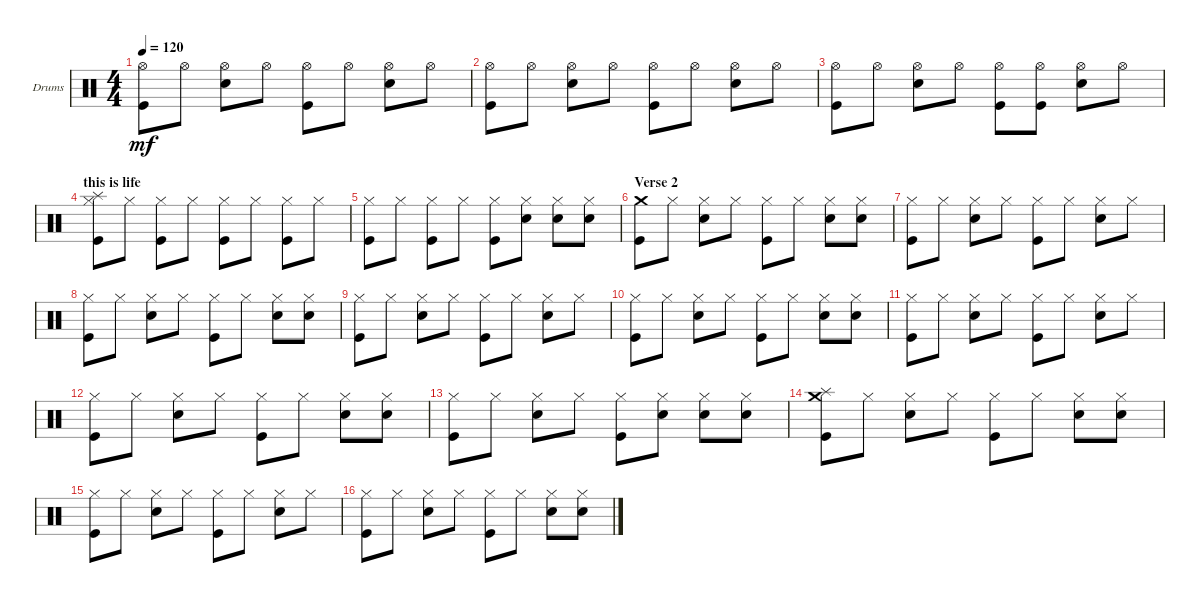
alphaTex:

\defaultSystemsLayout 4
\bracketExtendMode groupsimilarinstruments
\firstSystemTrackNameOrientation horizontal
\otherSystemsTrackNameOrientation horizontal
\track ("Drumkit" "Drums") {instrument percussion}
\staff {score}
\articulation defaults
\ts (4 4)
\tempo 120
\clef neutral
\ks c
("Kick (hit)" "Hi-Hat (open)").8{dy mf} "Hi-Hat (open)".8 ("Hi-Hat (open)" "Snare (hit) 2").8 "Hi-Hat (open)".8 ("Hi-Hat (open)" "Kick (hit)").8 "Hi-Hat (open)".8 ("Hi-Hat (open)" "Snare (hit) 2").8 "Hi-Hat (open)".8 |
("Kick (hit)" "Hi-Hat (open)").8 "Hi-Hat (open)".8 ("Hi-Hat (open)" "Snare (hit) 2").8 "Hi-Hat (open)".8 ("Hi-Hat (open)" "Kick (hit)").8 "Hi-Hat (open)".8 ("Hi-Hat (open)" "Snare (hit) 2").8 "Hi-Hat (open)".8 |
("Kick (hit)" "Hi-Hat (open)").8 "Hi-Hat (open)".8 ("Hi-Hat (open)" "Snare (hit) 2").8 "Hi-Hat (open)".8 ("Hi-Hat (open)" "Kick (hit)").8 ("Hi-Hat (open)" "Kick (hit)").8 ("Hi-Hat (open)" "Snare (hit) 2").8 "Hi-Hat (open)".8 |
\section ("" "this is life")
("Kick (hit)" "Hi-Hat (closed)" "Splash (hit)").8 "Hi-Hat (closed)".8 ("Hi-Hat (closed)" "Kick (hit)").8 "Hi-Hat (closed)".8 ("Hi-Hat (closed)" "Kick (hit)").8 "Hi-Hat (closed)".8 ("Hi-Hat (closed)" "Kick (hit)").8 "Hi-Hat (closed)".8 |
("Hi-Hat (closed)" "Kick (hit)").8 "Hi-Hat (closed)".8 ("Hi-Hat (closed)" "Kick (hit)").8 "Hi-Hat (closed)".8 ("Hi-Hat (closed)" "Kick (hit)").8 ("Hi-Hat (closed)" "Snare (hit) 2").8 ("Hi-Hat (closed)" "Snare (hit) 2").8 ("Hi-Hat (closed)" "Snare (hit) 2").8 |
\section ("" "Verse 2")
("Kick (hit)" "Crash medium (hit)").8 "Hi-Hat (closed)".8 ("Hi-Hat (closed)" "Snare (hit) 2").8 "Hi-Hat (closed)".8 ("Hi-Hat (closed)" "Kick (hit)").8 "Hi-Hat (closed)".8 ("Hi-Hat (closed)" "Snare (hit) 2").8 ("Hi-Hat (closed)" "Snare (hit) 2").8 |
("Hi-Hat (closed)" "Kick (hit)").8 "Hi-Hat (closed)".8 ("Hi-Hat (closed)" "Snare (hit) 2").8 "Hi-Hat (closed)".8 ("Hi-Hat (closed)" "Kick (hit)").8 "Hi-Hat (closed)".8 ("Hi-Hat (closed)" "Snare (hit) 2").8 "Hi-Hat (closed)".8 |
("Kick (hit)" "Hi-Hat (closed)").8 "Hi-Hat (closed)".8 ("Hi-Hat (closed)" "Snare (hit) 2").8 "Hi-Hat (closed)".8 ("Hi-Hat (closed)" "Kick (hit)").8 "Hi-Hat (closed)".8 ("Hi-Hat (closed)" "Snare (hit) 2").8 ("Hi-Hat (closed)" "Snare (hit) 2").8 |
("Hi-Hat (closed)" "Kick (hit)").8 "Hi-Hat (closed)".8 ("Hi-Hat (closed)" "Snare (hit) 2").8 "Hi-Hat (closed)".8 ("Hi-Hat (closed)" "Kick (hit)").8 "Hi-Hat (closed)".8 ("Hi-Hat (closed)" "Snare (hit) 2").8 "Hi-Hat (closed)".8 |
("Kick (hit)" "Hi-Hat (closed)").8 "Hi-Hat (closed)".8 ("Hi-Hat (closed)" "Snare (hit) 2").8 "Hi-Hat (closed)".8 ("Hi-Hat (closed)" "Kick (hit)").8 "Hi-Hat (closed)".8 ("Hi-Hat (closed)" "Snare (hit) 2").8 ("Hi-Hat (closed)" "Snare (hit) 2").8 |
("Hi-Hat (closed)" "Kick (hit)").8 "Hi-Hat (closed)".8 ("Hi-Hat (closed)" "Snare (hit) 2").8 "Hi-Hat (closed)".8 ("Hi-Hat (closed)" "Kick (hit)").8 "Hi-Hat (closed)".8 ("Hi-Hat (closed)" "Snare (hit) 2").8 "Hi-Hat (closed)".8 |
("Kick (hit)" "Hi-Hat (closed)").8 "Hi-Hat (closed)".8 ("Hi-Hat (closed)" "Snare (hit) 2").8 "Hi-Hat (closed)".8 ("Hi-Hat (closed)" "Kick (hit)").8 "Hi-Hat (closed)".8 ("Hi-Hat (closed)" "Snare (hit) 2").8 ("Hi-Hat (closed)" "Snare (hit) 2").8 |
("Hi-Hat (closed)" "Kick (hit)").8 "Hi-Hat (closed)".8 ("Hi-Hat (closed)" "Snare (hit) 2").8 "Hi-Hat (closed)".8 ("Hi-Hat (closed)" "Kick (hit)").8 ("Hi-Hat (closed)" "Snare (hit) 2").8 ("Hi-Hat (closed)" "Snare (hit) 2").8 ("Hi-Hat (closed)" "Snare (hit) 2").8 |
("Kick (hit)" "Crash medium (hit)" "Splash (hit)").8 "Hi-Hat (closed)".8 ("Hi-Hat (closed)" "Snare (hit) 2").8 "Hi-Hat (closed)".8 ("Hi-Hat (closed)" "Kick (hit)").8 "Hi-Hat (closed)".8 ("Hi-Hat (closed)" "Snare (hit) 2").8 ("Hi-Hat (closed)" "Snare (hit) 2").8 |
("Hi-Hat (closed)" "Kick (hit)").8 "Hi-Hat (closed)".8 ("Hi-Hat (closed)" "Snare (hit) 2").8 "Hi-Hat (closed)".8 ("Hi-Hat (closed)" "Kick (hit)").8 "Hi-Hat (closed)".8 ("Hi-Hat (closed)" "Snare (hit) 2").8 "Hi-Hat (closed)".8 |
("Kick (hit)" "Hi-Hat (closed)").8 "Hi-Hat (closed)".8 ("Hi-Hat (closed)" "Snare (hit) 2").8 "Hi-Hat (closed)".8 ("Hi-Hat (closed)" "Kick (hit)").8 "Hi-Hat (closed)".8 ("Hi-Hat (closed)" "Snare (hit) 2").8 ("Hi-Hat (closed)" "Snare (hit) 2").8
